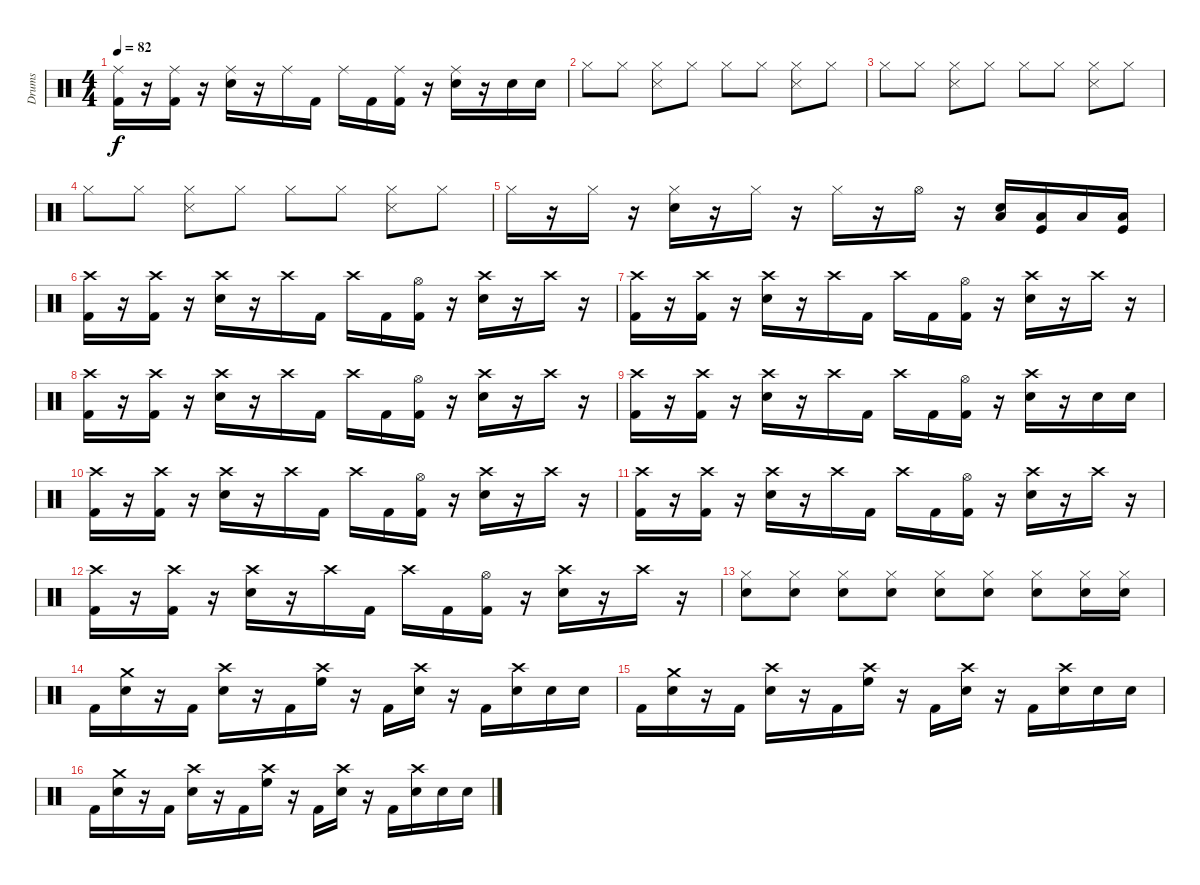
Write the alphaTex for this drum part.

\track ("Drums" "Drums") {instrument percussion}
\staff {score}
\articulation defaults
\ts (4 4)
\tempo 82
\clef neutral
\ks c
("Ride (middle)" "Kick (hit) 2").16{dy f} r.16 ("Ride (middle)" "Kick (hit) 2").16 r.16 ("Ride (middle)" "Electric Snare (hit)").16 r.16 "Ride (middle)".16 "Kick (hit) 2".16 "Ride (middle)".16 "Kick (hit) 2".16 ("Ride (middle)" "Kick (hit) 2").16 r.16 ("Ride (middle)" "Electric Snare (hit)").16 r.16 "Electric Snare (hit)".16 "Electric Snare (hit)".16 |
"Hi-Hat (closed)".8 "Hi-Hat (closed)".8 ("Hi-Hat (closed)" "Snare (side stick) 3").8 "Hi-Hat (closed)".8 "Hi-Hat (closed)".8 "Hi-Hat (closed)".8 ("Hi-Hat (closed)" "Snare (side stick) 3").8 "Hi-Hat (closed)".8 |
"Hi-Hat (closed)".8 "Hi-Hat (closed)".8 ("Hi-Hat (closed)" "Snare (side stick) 3").8 "Hi-Hat (closed)".8 "Hi-Hat (closed)".8 "Hi-Hat (closed)".8 ("Hi-Hat (closed)" "Snare (side stick) 3").8 "Hi-Hat (closed)".8 |
"Hi-Hat (closed)".8 "Hi-Hat (closed)".8 ("Hi-Hat (closed)" "Snare (side stick) 3").8 "Hi-Hat (closed)".8 "Hi-Hat (closed)".8 "Hi-Hat (closed)".8 ("Hi-Hat (closed)" "Snare (side stick) 3").8 "Hi-Hat (closed)".8 |
"Hi-Hat (closed)".16 r.16 "Hi-Hat (closed)".16 r.16 ("Hi-Hat (closed)" "Electric Snare (hit)").16 r.16 "Hi-Hat (closed)".16 r.16 "Hi-Hat (closed)".16 r.16 "Hi-Hat (open)".16 r.16 ("Low Tom (hit)" "Electric Snare (hit)").16 ("Low Tom (hit)" "Kick (hit)").16 "Low Tom (hit)".16 ("Low Tom (hit)" "Kick (hit)").16 |
("Crash high (hit)" "Kick (hit) 2").16 r.16 ("Crash high (hit)" "Kick (hit) 2").16 r.16 ("Crash high (hit)" "Electric Snare (hit)").16 r.16 "Crash high (hit)".16 "Kick (hit) 2".16 "Crash high (hit)".16 "Kick (hit) 2".16 ("Hi-Hat (open)" "Kick (hit) 2").16 r.16 ("Crash high (hit)" "Electric Snare (hit)").16 r.16 "Crash high (hit)".16 r.16 |
("Crash high (hit)" "Kick (hit) 2").16 r.16 ("Crash high (hit)" "Kick (hit) 2").16 r.16 ("Crash high (hit)" "Electric Snare (hit)").16 r.16 "Crash high (hit)".16 "Kick (hit) 2".16 "Crash high (hit)".16 "Kick (hit) 2".16 ("Hi-Hat (open)" "Kick (hit) 2").16 r.16 ("Crash high (hit)" "Electric Snare (hit)").16 r.16 "Crash high (hit)".16 r.16 |
("Crash high (hit)" "Kick (hit) 2").16 r.16 ("Crash high (hit)" "Kick (hit) 2").16 r.16 ("Crash high (hit)" "Electric Snare (hit)").16 r.16 "Crash high (hit)".16 "Kick (hit) 2".16 "Crash high (hit)".16 "Kick (hit) 2".16 ("Hi-Hat (open)" "Kick (hit) 2").16 r.16 ("Crash high (hit)" "Electric Snare (hit)").16 r.16 "Crash high (hit)".16 r.16 |
("Crash high (hit)" "Kick (hit) 2").16 r.16 ("Crash high (hit)" "Kick (hit) 2").16 r.16 ("Crash high (hit)" "Electric Snare (hit)").16 r.16 "Crash high (hit)".16 "Kick (hit) 2".16 "Crash high (hit)".16 "Kick (hit) 2".16 ("Hi-Hat (open)" "Kick (hit) 2").16 r.16 ("Crash high (hit)" "Electric Snare (hit)").16 r.16 "Electric Snare (hit)".16 "Electric Snare (hit)".16 |
("Crash high (hit)" "Kick (hit) 2").16 r.16 ("Crash high (hit)" "Kick (hit) 2").16 r.16 ("Crash high (hit)" "Electric Snare (hit)").16 r.16 "Crash high (hit)".16 "Kick (hit) 2".16 "Crash high (hit)".16 "Kick (hit) 2".16 ("Hi-Hat (open)" "Kick (hit) 2").16 r.16 ("Crash high (hit)" "Electric Snare (hit)").16 r.16 "Crash high (hit)".16 r.16 |
("Crash high (hit)" "Kick (hit) 2").16 r.16 ("Crash high (hit)" "Kick (hit) 2").16 r.16 ("Crash high (hit)" "Electric Snare (hit)").16 r.16 "Crash high (hit)".16 "Kick (hit) 2".16 "Crash high (hit)".16 "Kick (hit) 2".16 ("Hi-Hat (open)" "Kick (hit) 2").16 r.16 ("Crash high (hit)" "Electric Snare (hit)").16 r.16 "Crash high (hit)".16 r.16 |
("Crash high (hit)" "Kick (hit) 2").16 r.16 ("Crash high (hit)" "Kick (hit) 2").16 r.16 ("Crash high (hit)" "Electric Snare (hit)").16 r.16 "Crash high (hit)".16 "Kick (hit) 2".16 "Crash high (hit)".16 "Kick (hit) 2".16 ("Hi-Hat (open)" "Kick (hit) 2").16 r.16 ("Crash high (hit)" "Electric Snare (hit)").16 r.16 "Crash high (hit)".16 r.16 |
("Electric Snare (hit)" "Hi-Hat (closed)").8 ("Electric Snare (hit)" "Hi-Hat (closed)").8 ("Electric Snare (hit)" "Hi-Hat (closed)").8 ("Electric Snare (hit)" "Hi-Hat (closed)").8 ("Electric Snare (hit)" "Hi-Hat (closed)").8 ("Electric Snare (hit)" "Hi-Hat (closed)").8 ("Electric Snare (hit)" "Hi-Hat (closed)").8 ("Electric Snare (hit)" "Hi-Hat (closed)").16 ("Electric Snare (hit)" "Hi-Hat (closed)").16 |
"Kick (hit) 2".16 ("Crash medium (hit)" "Electric Snare (hit)").16 r.16 "Kick (hit) 2".16 ("Crash high (hit)" "Electric Snare (hit)").16 r.16 "Kick (hit) 2".16 ("Crash high (hit)" "High Floor Tom (hit)").16 r.16 "Kick (hit) 2".16 ("Crash high (hit)" "Electric Snare (hit)").16 r.16 "Kick (hit) 2".16 ("Crash high (hit)" "Electric Snare (hit)").16 "Electric Snare (hit)".16 "Electric Snare (hit)".16 |
"Kick (hit) 2".16 ("Crash medium (hit)" "Electric Snare (hit)").16 r.16 "Kick (hit) 2".16 ("Crash high (hit)" "Electric Snare (hit)").16 r.16 "Kick (hit) 2".16 ("Crash high (hit)" "High Floor Tom (hit)").16 r.16 "Kick (hit) 2".16 ("Crash high (hit)" "Electric Snare (hit)").16 r.16 "Kick (hit) 2".16 ("Crash high (hit)" "Electric Snare (hit)").16 "Electric Snare (hit)".16 "Electric Snare (hit)".16 |
"Kick (hit) 2".16 ("Crash medium (hit)" "Electric Snare (hit)").16 r.16 "Kick (hit) 2".16 ("Crash high (hit)" "Electric Snare (hit)").16 r.16 "Kick (hit) 2".16 ("Crash high (hit)" "High Floor Tom (hit)").16 r.16 "Kick (hit) 2".16 ("Crash high (hit)" "Electric Snare (hit)").16 r.16 "Kick (hit) 2".16 ("Crash high (hit)" "Electric Snare (hit)").16 "Electric Snare (hit)".16 "Electric Snare (hit)".16
